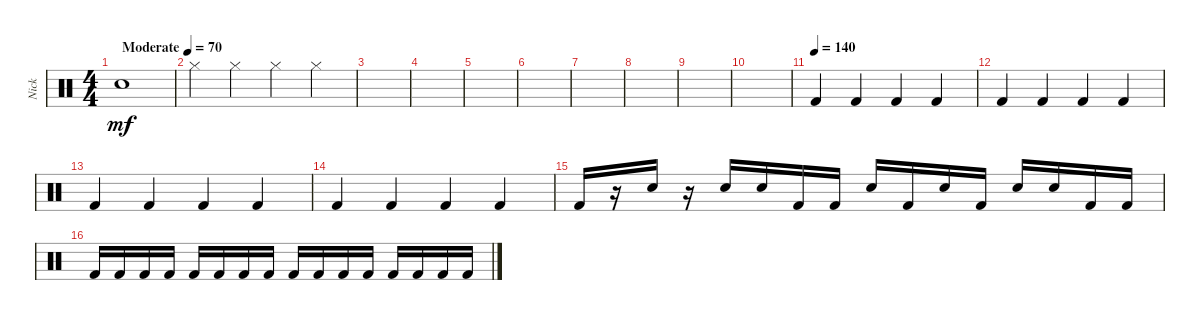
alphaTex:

\track ("Nick " "Nick ") {instrument percussion}
\staff {score}
\articulation defaults
\ts (4 4)
\tempo (70 "Moderate")
\clef neutral
\ks c "Snare (hit) 2".1{dy mf}
|
"Hi-Hat (closed)".4 "Hi-Hat (closed)".4 "Hi-Hat (closed)".4 "Hi-Hat (closed)".4 |
|
|
|
|
|
|
|
|
\tempo (140)
"Kick (hit) 2".4 "Kick (hit) 2".4 "Kick (hit) 2".4 "Kick (hit) 2".4 |
"Kick (hit) 2".4 "Kick (hit) 2".4 "Kick (hit) 2".4 "Kick (hit) 2".4 |
"Kick (hit) 2".4 "Kick (hit) 2".4 "Kick (hit) 2".4 "Kick (hit) 2".4 |
"Kick (hit) 2".4 "Kick (hit) 2".4 "Kick (hit) 2".4 "Kick (hit) 2".4 |
"Kick (hit) 2".16 r.16 "Snare (hit) 2".16 r.16 "Snare (hit) 2".16 "Snare (hit) 2".16 "Kick (hit) 2".16 "Kick (hit) 2".16 "Snare (hit) 2".16 "Kick (hit) 2".16 "Snare (hit) 2".16 "Kick (hit) 2".16 "Snare (hit) 2".16 "Snare (hit) 2".16 "Kick (hit) 2".16 "Kick (hit) 2".16 |
"Kick (hit) 2".16 "Kick (hit) 2".16 "Kick (hit) 2".16 "Kick (hit) 2".16 "Kick (hit) 2".16 "Kick (hit) 2".16 "Kick (hit) 2".16 "Kick (hit) 2".16 "Kick (hit) 2".16 "Kick (hit) 2".16 "Kick (hit) 2".16 "Kick (hit) 2".16 "Kick (hit) 2".16 "Kick (hit) 2".16 "Kick (hit) 2".16 "Kick (hit) 2".16
